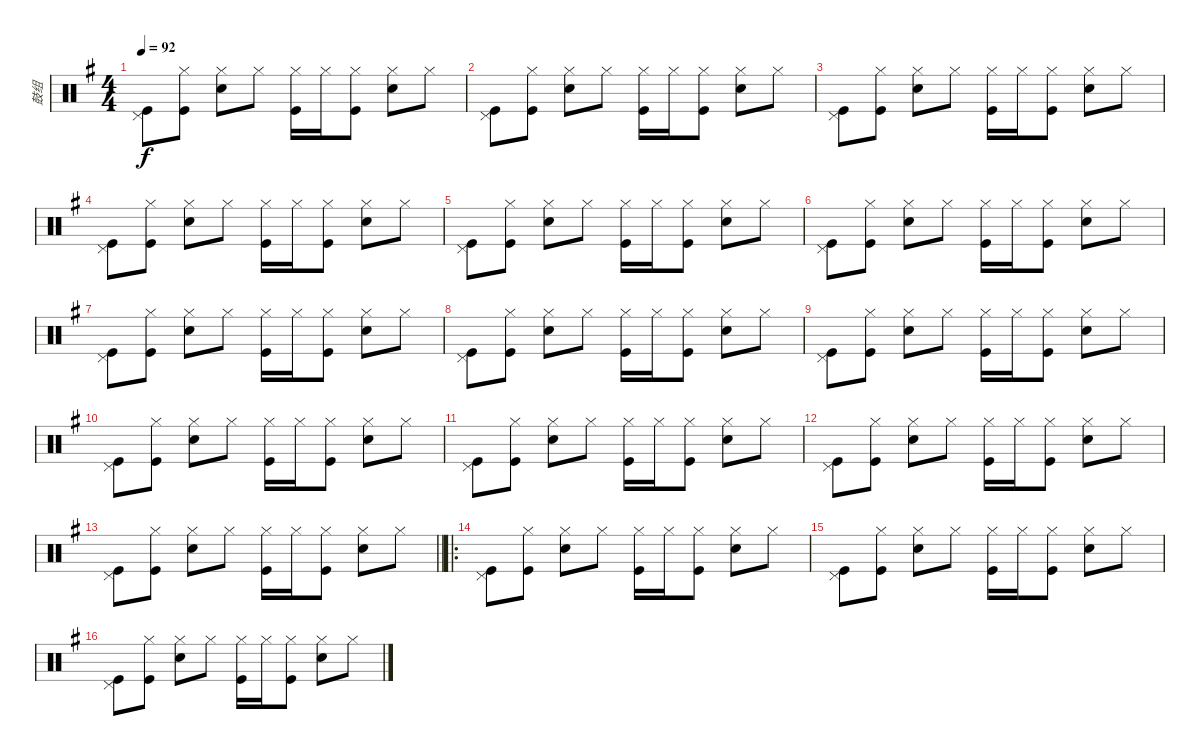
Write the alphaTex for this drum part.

\track ("鼓组" "鼓组") {instrument percussion}
\staff {score}
\articulation defaults
\ts (4 4)
\tempo 92
\clef neutral
\ks g
("Pedal Hi-Hat (hit)" "Kick (hit)").8{dy f} ("Hi-Hat (closed)" "Kick (hit)").8 ("Hi-Hat (closed)" "Snare (hit) 2").8 "Hi-Hat (closed)".8 ("Hi-Hat (closed)" "Kick (hit)").16 "Hi-Hat (closed)".16 ("Hi-Hat (closed)" "Kick (hit)").8 ("Hi-Hat (closed)" "Snare (hit) 2").8 "Hi-Hat (closed)".8 |
("Pedal Hi-Hat (hit)" "Kick (hit)").8 ("Hi-Hat (closed)" "Kick (hit)").8 ("Hi-Hat (closed)" "Snare (hit) 2").8 "Hi-Hat (closed)".8 ("Hi-Hat (closed)" "Kick (hit)").16 "Hi-Hat (closed)".16 ("Hi-Hat (closed)" "Kick (hit)").8 ("Hi-Hat (closed)" "Snare (hit) 2").8 "Hi-Hat (closed)".8 |
("Pedal Hi-Hat (hit)" "Kick (hit)").8 ("Hi-Hat (closed)" "Kick (hit)").8 ("Hi-Hat (closed)" "Snare (hit) 2").8 "Hi-Hat (closed)".8 ("Hi-Hat (closed)" "Kick (hit)").16 "Hi-Hat (closed)".16 ("Hi-Hat (closed)" "Kick (hit)").8 ("Hi-Hat (closed)" "Snare (hit) 2").8 "Hi-Hat (closed)".8 |
("Pedal Hi-Hat (hit)" "Kick (hit)").8 ("Hi-Hat (closed)" "Kick (hit)").8 ("Hi-Hat (closed)" "Snare (hit) 2").8 "Hi-Hat (closed)".8 ("Hi-Hat (closed)" "Kick (hit)").16 "Hi-Hat (closed)".16 ("Hi-Hat (closed)" "Kick (hit)").8 ("Hi-Hat (closed)" "Snare (hit) 2").8 "Hi-Hat (closed)".8 |
("Pedal Hi-Hat (hit)" "Kick (hit)").8 ("Hi-Hat (closed)" "Kick (hit)").8 ("Hi-Hat (closed)" "Snare (hit) 2").8 "Hi-Hat (closed)".8 ("Hi-Hat (closed)" "Kick (hit)").16 "Hi-Hat (closed)".16 ("Hi-Hat (closed)" "Kick (hit)").8 ("Hi-Hat (closed)" "Snare (hit) 2").8 "Hi-Hat (closed)".8 |
("Pedal Hi-Hat (hit)" "Kick (hit)").8 ("Hi-Hat (closed)" "Kick (hit)").8 ("Hi-Hat (closed)" "Snare (hit) 2").8 "Hi-Hat (closed)".8 ("Hi-Hat (closed)" "Kick (hit)").16 "Hi-Hat (closed)".16 ("Hi-Hat (closed)" "Kick (hit)").8 ("Hi-Hat (closed)" "Snare (hit) 2").8 "Hi-Hat (closed)".8 |
("Pedal Hi-Hat (hit)" "Kick (hit)").8 ("Hi-Hat (closed)" "Kick (hit)").8 ("Hi-Hat (closed)" "Snare (hit) 2").8 "Hi-Hat (closed)".8 ("Hi-Hat (closed)" "Kick (hit)").16 "Hi-Hat (closed)".16 ("Hi-Hat (closed)" "Kick (hit)").8 ("Hi-Hat (closed)" "Snare (hit) 2").8 "Hi-Hat (closed)".8 |
("Pedal Hi-Hat (hit)" "Kick (hit)").8 ("Hi-Hat (closed)" "Kick (hit)").8 ("Hi-Hat (closed)" "Snare (hit) 2").8 "Hi-Hat (closed)".8 ("Hi-Hat (closed)" "Kick (hit)").16 "Hi-Hat (closed)".16 ("Hi-Hat (closed)" "Kick (hit)").8 ("Hi-Hat (closed)" "Snare (hit) 2").8 "Hi-Hat (closed)".8 |
("Pedal Hi-Hat (hit)" "Kick (hit)").8 ("Hi-Hat (closed)" "Kick (hit)").8 ("Hi-Hat (closed)" "Snare (hit) 2").8 "Hi-Hat (closed)".8 ("Hi-Hat (closed)" "Kick (hit)").16 "Hi-Hat (closed)".16 ("Hi-Hat (closed)" "Kick (hit)").8 ("Hi-Hat (closed)" "Snare (hit) 2").8 "Hi-Hat (closed)".8 |
("Pedal Hi-Hat (hit)" "Kick (hit)").8 ("Hi-Hat (closed)" "Kick (hit)").8 ("Hi-Hat (closed)" "Snare (hit) 2").8 "Hi-Hat (closed)".8 ("Hi-Hat (closed)" "Kick (hit)").16 "Hi-Hat (closed)".16 ("Hi-Hat (closed)" "Kick (hit)").8 ("Hi-Hat (closed)" "Snare (hit) 2").8 "Hi-Hat (closed)".8 |
("Pedal Hi-Hat (hit)" "Kick (hit)").8 ("Hi-Hat (closed)" "Kick (hit)").8 ("Hi-Hat (closed)" "Snare (hit) 2").8 "Hi-Hat (closed)".8 ("Hi-Hat (closed)" "Kick (hit)").16 "Hi-Hat (closed)".16 ("Hi-Hat (closed)" "Kick (hit)").8 ("Hi-Hat (closed)" "Snare (hit) 2").8 "Hi-Hat (closed)".8 |
("Pedal Hi-Hat (hit)" "Kick (hit)").8 ("Hi-Hat (closed)" "Kick (hit)").8 ("Hi-Hat (closed)" "Snare (hit) 2").8 "Hi-Hat (closed)".8 ("Hi-Hat (closed)" "Kick (hit)").16 "Hi-Hat (closed)".16 ("Hi-Hat (closed)" "Kick (hit)").8 ("Hi-Hat (closed)" "Snare (hit) 2").8 "Hi-Hat (closed)".8 |
\barLineRight lightlight
("Pedal Hi-Hat (hit)" "Kick (hit)").8 ("Hi-Hat (closed)" "Kick (hit)").8 ("Hi-Hat (closed)" "Snare (hit) 2").8 "Hi-Hat (closed)".8 ("Hi-Hat (closed)" "Kick (hit)").16 "Hi-Hat (closed)".16 ("Hi-Hat (closed)" "Kick (hit)").8 ("Hi-Hat (closed)" "Snare (hit) 2").8 "Hi-Hat (closed)".8 |
\ro
("Pedal Hi-Hat (hit)" "Kick (hit)").8 ("Hi-Hat (closed)" "Kick (hit)").8 ("Hi-Hat (closed)" "Snare (hit) 2").8 "Hi-Hat (closed)".8 ("Hi-Hat (closed)" "Kick (hit)").16 "Hi-Hat (closed)".16 ("Hi-Hat (closed)" "Kick (hit)").8 ("Hi-Hat (closed)" "Snare (hit) 2").8 "Hi-Hat (closed)".8 |
("Pedal Hi-Hat (hit)" "Kick (hit)").8 ("Hi-Hat (closed)" "Kick (hit)").8 ("Hi-Hat (closed)" "Snare (hit) 2").8 "Hi-Hat (closed)".8 ("Hi-Hat (closed)" "Kick (hit)").16 "Hi-Hat (closed)".16 ("Hi-Hat (closed)" "Kick (hit)").8 ("Hi-Hat (closed)" "Snare (hit) 2").8 "Hi-Hat (closed)".8 |
("Pedal Hi-Hat (hit)" "Kick (hit)").8 ("Hi-Hat (closed)" "Kick (hit)").8 ("Hi-Hat (closed)" "Snare (hit) 2").8 "Hi-Hat (closed)".8 ("Hi-Hat (closed)" "Kick (hit)").16 "Hi-Hat (closed)".16 ("Hi-Hat (closed)" "Kick (hit)").8 ("Hi-Hat (closed)" "Snare (hit) 2").8 "Hi-Hat (closed)".8
